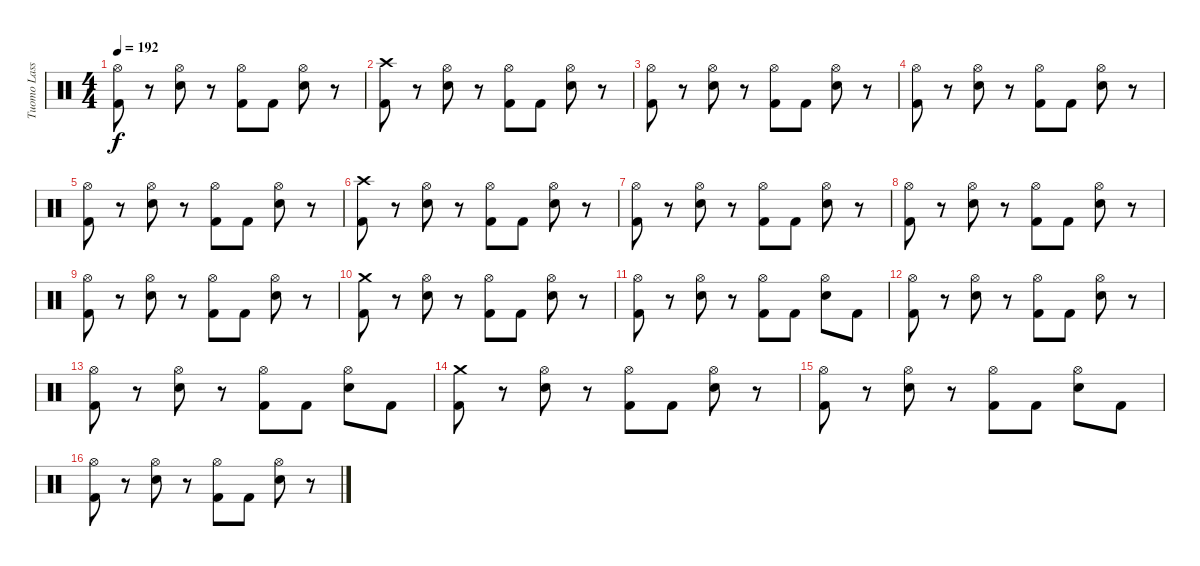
\track ("Tuomo Lassilla" "Tuomo Lass") {instrument percussion}
\staff {score}
\articulation defaults
\ts (4 4)
\tempo 192
\clef neutral
\ks c
("Hi-Hat (open)" "Kick (hit) 2").8{dy f} r.8 ("Hi-Hat (open)" "Electric Snare (hit)").8 r.8 ("Hi-Hat (open)" "Kick (hit) 2").8 "Kick (hit) 2".8 ("Hi-Hat (open)" "Electric Snare (hit)").8 r.8 |
("Crash high (hit)" "Kick (hit) 2").8 r.8 ("Hi-Hat (open)" "Electric Snare (hit)").8 r.8 ("Hi-Hat (open)" "Kick (hit) 2").8 "Kick (hit) 2".8 ("Hi-Hat (open)" "Electric Snare (hit)").8 r.8 |
("Hi-Hat (open)" "Kick (hit) 2").8 r.8 ("Hi-Hat (open)" "Electric Snare (hit)").8 r.8 ("Hi-Hat (open)" "Kick (hit) 2").8 "Kick (hit) 2".8 ("Hi-Hat (open)" "Electric Snare (hit)").8 r.8 |
("Hi-Hat (open)" "Kick (hit) 2").8 r.8 ("Hi-Hat (open)" "Electric Snare (hit)").8 r.8 ("Hi-Hat (open)" "Kick (hit) 2").8 "Kick (hit) 2".8 ("Hi-Hat (open)" "Electric Snare (hit)").8 r.8 |
("Hi-Hat (open)" "Kick (hit) 2").8 r.8 ("Hi-Hat (open)" "Electric Snare (hit)").8 r.8 ("Hi-Hat (open)" "Kick (hit) 2").8 "Kick (hit) 2".8 ("Hi-Hat (open)" "Electric Snare (hit)").8 r.8 |
("Crash high (hit)" "Kick (hit) 2").8 r.8 ("Hi-Hat (open)" "Electric Snare (hit)").8 r.8 ("Hi-Hat (open)" "Kick (hit) 2").8 "Kick (hit) 2".8 ("Hi-Hat (open)" "Electric Snare (hit)").8 r.8 |
("Hi-Hat (open)" "Kick (hit) 2").8 r.8 ("Hi-Hat (open)" "Electric Snare (hit)").8 r.8 ("Hi-Hat (open)" "Kick (hit) 2").8 "Kick (hit) 2".8 ("Hi-Hat (open)" "Electric Snare (hit)").8 r.8 |
("Hi-Hat (open)" "Kick (hit) 2").8 r.8 ("Hi-Hat (open)" "Electric Snare (hit)").8 r.8 ("Hi-Hat (open)" "Kick (hit) 2").8 "Kick (hit) 2".8 ("Hi-Hat (open)" "Electric Snare (hit)").8 r.8 |
("Hi-Hat (open)" "Kick (hit) 2").8 r.8 ("Hi-Hat (open)" "Electric Snare (hit)").8 r.8 ("Hi-Hat (open)" "Kick (hit) 2").8 "Kick (hit) 2".8 ("Hi-Hat (open)" "Electric Snare (hit)").8 r.8 |
("Crash medium (hit)" "Kick (hit) 2").8 r.8 ("Hi-Hat (open)" "Electric Snare (hit)").8 r.8 ("Hi-Hat (open)" "Kick (hit) 2").8 "Kick (hit) 2".8 ("Hi-Hat (open)" "Electric Snare (hit)").8 r.8 |
("Hi-Hat (open)" "Kick (hit) 2").8 r.8 ("Hi-Hat (open)" "Electric Snare (hit)").8 r.8 ("Hi-Hat (open)" "Kick (hit) 2").8 "Kick (hit) 2".8 ("Hi-Hat (open)" "Electric Snare (hit)").8 "Kick (hit) 2".8 |
("Hi-Hat (open)" "Kick (hit) 2").8 r.8 ("Hi-Hat (open)" "Electric Snare (hit)").8 r.8 ("Hi-Hat (open)" "Kick (hit) 2").8 "Kick (hit) 2".8 ("Hi-Hat (open)" "Electric Snare (hit)").8 r.8 |
("Hi-Hat (open)" "Kick (hit) 2").8 r.8 ("Hi-Hat (open)" "Electric Snare (hit)").8 r.8 ("Hi-Hat (open)" "Kick (hit) 2").8 "Kick (hit) 2".8 ("Hi-Hat (open)" "Electric Snare (hit)").8 "Kick (hit) 2".8 |
("Crash medium (hit)" "Kick (hit) 2").8 r.8 ("Hi-Hat (open)" "Electric Snare (hit)").8 r.8 ("Hi-Hat (open)" "Kick (hit) 2").8 "Kick (hit) 2".8 ("Hi-Hat (open)" "Electric Snare (hit)").8 r.8 |
("Hi-Hat (open)" "Kick (hit) 2").8 r.8 ("Hi-Hat (open)" "Electric Snare (hit)").8 r.8 ("Hi-Hat (open)" "Kick (hit) 2").8 "Kick (hit) 2".8 ("Hi-Hat (open)" "Electric Snare (hit)").8 "Kick (hit) 2".8 |
("Hi-Hat (open)" "Kick (hit) 2").8 r.8 ("Hi-Hat (open)" "Electric Snare (hit)").8 r.8 ("Hi-Hat (open)" "Kick (hit) 2").8 "Kick (hit) 2".8 ("Hi-Hat (open)" "Electric Snare (hit)").8 r.8
